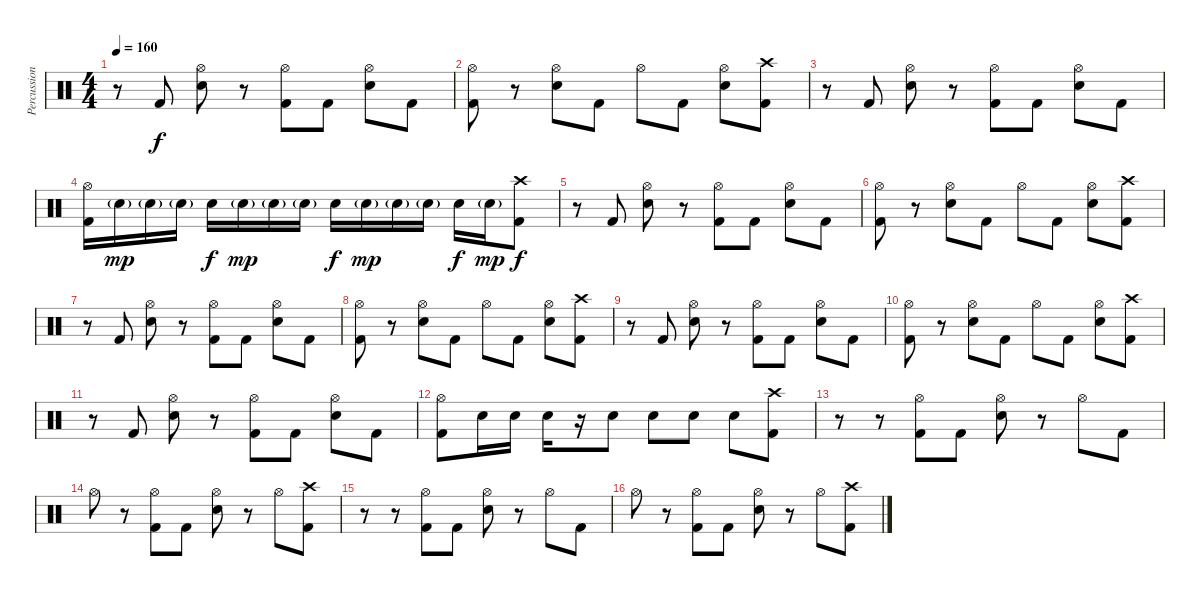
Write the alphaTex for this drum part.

\track ("Percussion" "Percussion") {instrument percussion}
\staff {score}
\articulation defaults
\ts (4 4)
\tempo 160
\clef neutral
\ks c
r.8{dy f} "Kick (hit) 2".8 ("Hi-Hat (open)" "Electric Snare (hit)").8 r.8 ("Hi-Hat (open)" "Kick (hit) 2").8 "Kick (hit) 2".8 ("Hi-Hat (open)" "Electric Snare (hit)").8 "Kick (hit) 2".8 |
("Hi-Hat (open)" "Kick (hit) 2").8 r.8 ("Hi-Hat (open)" "Electric Snare (hit)").8 "Kick (hit) 2".8 "Hi-Hat (open)".8 "Kick (hit) 2".8 ("Hi-Hat (open)" "Electric Snare (hit)").8 ("Crash high (hit)" "Kick (hit) 2").8 |
r.8 "Kick (hit) 2".8 ("Hi-Hat (open)" "Electric Snare (hit)").8 r.8 ("Hi-Hat (open)" "Kick (hit) 2").8 "Kick (hit) 2".8 ("Hi-Hat (open)" "Electric Snare (hit)").8 "Kick (hit) 2".8 |
("Hi-Hat (open)" "Kick (hit) 2").16 "Electric Snare (hit)"{g}.16{dy mp} "Electric Snare (hit)"{g}.16 "Electric Snare (hit)"{g}.16 "Electric Snare (hit)".16{dy f} "Electric Snare (hit)"{g}.16{dy mp} "Electric Snare (hit)"{g}.16 "Electric Snare (hit)"{g}.16 "Electric Snare (hit)".16{dy f} "Electric Snare (hit)"{g}.16{dy mp} "Electric Snare (hit)"{g}.16 "Electric Snare (hit)"{g}.16 "Electric Snare (hit)".16{dy f} "Electric Snare (hit)"{g}.16{dy mp} ("Crash high (hit)" "Kick (hit) 2").8{dy f} |
r.8 "Kick (hit) 2".8 ("Hi-Hat (open)" "Electric Snare (hit)").8 r.8 ("Hi-Hat (open)" "Kick (hit) 2").8 "Kick (hit) 2".8 ("Hi-Hat (open)" "Electric Snare (hit)").8 "Kick (hit) 2".8 |
("Hi-Hat (open)" "Kick (hit) 2").8 r.8 ("Hi-Hat (open)" "Electric Snare (hit)").8 "Kick (hit) 2".8 "Hi-Hat (open)".8 "Kick (hit) 2".8 ("Hi-Hat (open)" "Electric Snare (hit)").8 ("Crash high (hit)" "Kick (hit) 2").8 |
r.8 "Kick (hit) 2".8 ("Hi-Hat (open)" "Electric Snare (hit)").8 r.8 ("Hi-Hat (open)" "Kick (hit) 2").8 "Kick (hit) 2".8 ("Hi-Hat (open)" "Electric Snare (hit)").8 "Kick (hit) 2".8 |
("Hi-Hat (open)" "Kick (hit) 2").8 r.8 ("Hi-Hat (open)" "Electric Snare (hit)").8 "Kick (hit) 2".8 "Hi-Hat (open)".8 "Kick (hit) 2".8 ("Hi-Hat (open)" "Electric Snare (hit)").8 ("Crash high (hit)" "Kick (hit) 2").8 |
r.8 "Kick (hit) 2".8 ("Hi-Hat (open)" "Electric Snare (hit)").8 r.8 ("Hi-Hat (open)" "Kick (hit) 2").8 "Kick (hit) 2".8 ("Hi-Hat (open)" "Electric Snare (hit)").8 "Kick (hit) 2".8 |
("Hi-Hat (open)" "Kick (hit) 2").8 r.8 ("Hi-Hat (open)" "Electric Snare (hit)").8 "Kick (hit) 2".8 "Hi-Hat (open)".8 "Kick (hit) 2".8 ("Hi-Hat (open)" "Electric Snare (hit)").8 ("Crash high (hit)" "Kick (hit) 2").8 |
r.8 "Kick (hit) 2".8 ("Hi-Hat (open)" "Electric Snare (hit)").8 r.8 ("Hi-Hat (open)" "Kick (hit) 2").8 "Kick (hit) 2".8 ("Hi-Hat (open)" "Electric Snare (hit)").8 "Kick (hit) 2".8 |
("Hi-Hat (open)" "Kick (hit) 2").8 "Electric Snare (hit)".16 "Electric Snare (hit)".16 "Electric Snare (hit)".16 r.16 "Electric Snare (hit)".8 "Electric Snare (hit)".8 "Electric Snare (hit)".8 "Electric Snare (hit)".8 ("Crash high (hit)" "Kick (hit) 2").8 |
r.8 r.8 ("Hi-Hat (open)" "Kick (hit) 2").8 "Kick (hit) 2".8 ("Hi-Hat (open)" "Electric Snare (hit)").8 r.8 "Hi-Hat (open)".8 "Kick (hit) 2".8 |
"Hi-Hat (open)".8 r.8 ("Hi-Hat (open)" "Kick (hit) 2").8 "Kick (hit) 2".8 ("Hi-Hat (open)" "Electric Snare (hit)").8 r.8 "Hi-Hat (open)".8 ("Crash high (hit)" "Kick (hit) 2").8 |
r.8 r.8 ("Hi-Hat (open)" "Kick (hit) 2").8 "Kick (hit) 2".8 ("Hi-Hat (open)" "Electric Snare (hit)").8 r.8 "Hi-Hat (open)".8 "Kick (hit) 2".8 |
"Hi-Hat (open)".8 r.8 ("Hi-Hat (open)" "Kick (hit) 2").8 "Kick (hit) 2".8 ("Hi-Hat (open)" "Electric Snare (hit)").8 r.8 "Hi-Hat (open)".8 ("Crash high (hit)" "Kick (hit) 2").8
